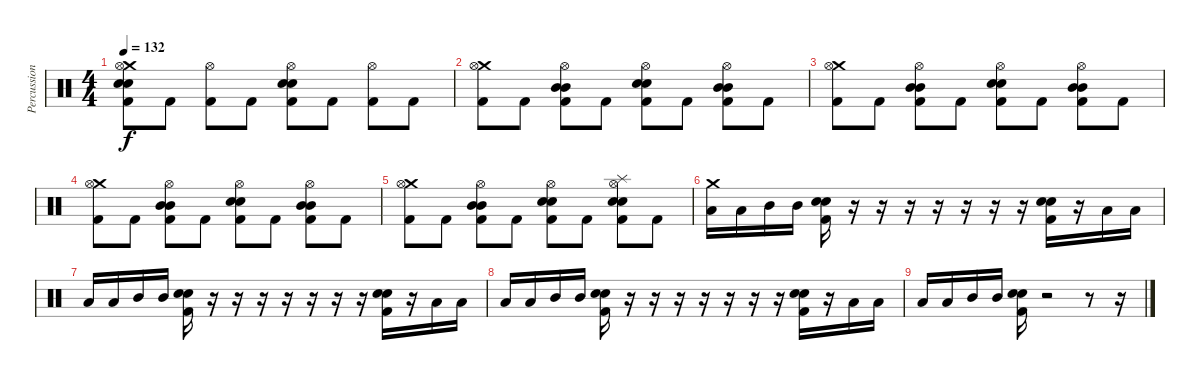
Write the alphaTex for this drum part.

\track ("Percussion" "Percussion") {instrument percussion}
\staff {score}
\articulation defaults
\ts (4 4)
\tempo 132
\clef neutral
\ks c
("Crash medium (hit)" "Hi-Hat (open)" "Snare (hit) 2" "Snare (hit) 2" "Kick (hit) 2").8{dy f} "Kick (hit) 2".8 ("Hi-Hat (open)" "Kick (hit) 2").8 "Kick (hit) 2".8 ("Hi-Hat (open)" "Snare (hit) 2" "Snare (hit) 2" "Kick (hit) 2").8 "Kick (hit) 2".8 ("Hi-Hat (open)" "Kick (hit) 2").8 "Kick (hit) 2".8 |
("Crash medium (hit)" "Hi-Hat (open)" "Kick (hit) 2").8 "Kick (hit) 2".8 ("Hi-Hat (open)" "Mid Tom (hit)" "Mid Tom (hit)" "Kick (hit) 2").8 "Kick (hit) 2".8 ("Hi-Hat (open)" "Snare (hit) 2" "Snare (hit) 2" "Kick (hit) 2").8 "Kick (hit) 2".8 ("Hi-Hat (open)" "Mid Tom (hit)" "Mid Tom (hit)" "Kick (hit) 2").8 "Kick (hit) 2".8 |
("Crash medium (hit)" "Hi-Hat (open)" "Kick (hit) 2").8 "Kick (hit) 2".8 ("Hi-Hat (open)" "Mid Tom (hit)" "Mid Tom (hit)" "Kick (hit) 2").8 "Kick (hit) 2".8 ("Hi-Hat (open)" "Snare (hit) 2" "Snare (hit) 2" "Kick (hit) 2").8 "Kick (hit) 2".8 ("Hi-Hat (open)" "Mid Tom (hit)" "Mid Tom (hit)" "Kick (hit) 2").8 "Kick (hit) 2".8 |
("Crash medium (hit)" "Hi-Hat (open)" "Kick (hit) 2").8 "Kick (hit) 2".8 ("Hi-Hat (open)" "Mid Tom (hit)" "Mid Tom (hit)" "Kick (hit) 2").8 "Kick (hit) 2".8 ("Hi-Hat (open)" "Snare (hit) 2" "Snare (hit) 2" "Kick (hit) 2").8 "Kick (hit) 2".8 ("Hi-Hat (open)" "Mid Tom (hit)" "Mid Tom (hit)" "Kick (hit) 2").8 "Kick (hit) 2".8 |
("Crash medium (hit)" "Hi-Hat (open)" "Kick (hit) 2").8 "Kick (hit) 2".8 ("Hi-Hat (open)" "Mid Tom (hit)" "Mid Tom (hit)" "Kick (hit) 2").8 "Kick (hit) 2".8 ("Hi-Hat (open)" "Snare (hit) 2" "Snare (hit) 2" "Kick (hit) 2").8 "Kick (hit) 2".8 ("Splash (hit)" "Hi-Hat (open)" "Electric Snare (hit)" "Snare (hit) 2" "Kick (hit) 2").8 "Kick (hit) 2".8 |
("Crash medium (hit)" "Low Tom (hit)").16 "Low Tom (hit)".16 "Mid Tom (hit)".16 "Mid Tom (hit)".16 ("Electric Snare (hit)" "Snare (hit) 2" "Kick (hit) 2").16 r.16 r.16 r.16 r.16 r.16 r.16 r.16 ("Electric Snare (hit)" "Snare (hit) 2" "Kick (hit) 2").16 r.16 "Low Tom (hit)".16 "Low Tom (hit)".16 |
"Low Tom (hit)".16 "Low Tom (hit)".16 "Mid Tom (hit)".16 "Mid Tom (hit)".16 ("Electric Snare (hit)" "Snare (hit) 2" "Kick (hit) 2").16 r.16 r.16 r.16 r.16 r.16 r.16 r.16 ("Electric Snare (hit)" "Snare (hit) 2" "Kick (hit) 2").16 r.16 "Low Tom (hit)".16 "Low Tom (hit)".16 |
"Low Tom (hit)".16 "Low Tom (hit)".16 "Mid Tom (hit)".16 "Mid Tom (hit)".16 ("Electric Snare (hit)" "Snare (hit) 2" "Kick (hit) 2").16 r.16 r.16 r.16 r.16 r.16 r.16 r.16 ("Electric Snare (hit)" "Snare (hit) 2" "Kick (hit) 2").16 r.16 "Low Tom (hit)".16 "Low Tom (hit)".16 |
"Low Tom (hit)".16 "Low Tom (hit)".16 "Mid Tom (hit)".16 "Mid Tom (hit)".16 ("Electric Snare (hit)" "Snare (hit) 2" "Kick (hit) 2").16 r.2 r.8 r.16
